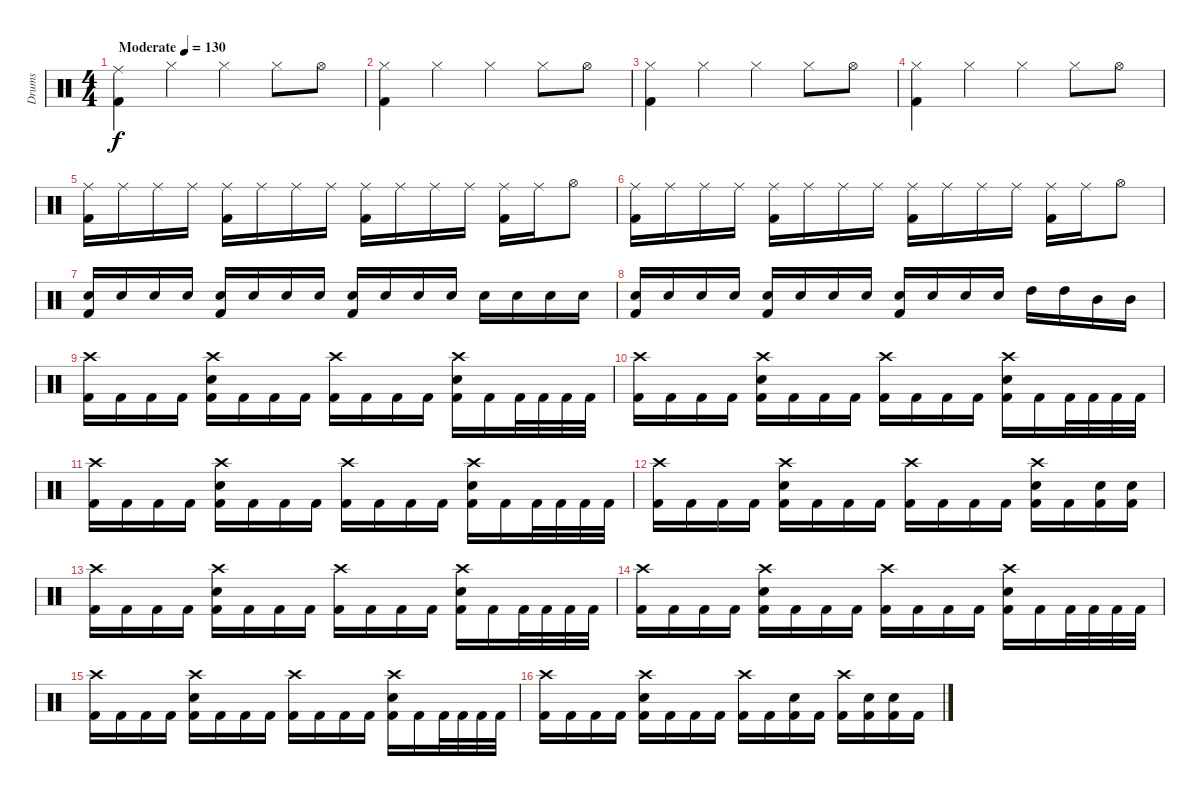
\track ("Drums" "Drums") {instrument percussion}
\staff {score}
\articulation defaults
\ts (4 4)
\tempo (130 "Moderate")
\clef neutral
\ks c
("Ride (middle)" "Kick (hit) 2").4{dy f} "Hi-Hat (closed)".4 "Hi-Hat (closed)".4 "Hi-Hat (closed)".8 "Hi-Hat (open)".8 |
("Hi-Hat (closed)" "Kick (hit) 2").4 "Hi-Hat (closed)".4 "Hi-Hat (closed)".4 "Hi-Hat (closed)".8 "Hi-Hat (open)".8 |
("Hi-Hat (closed)" "Kick (hit) 2").4 "Hi-Hat (closed)".4 "Hi-Hat (closed)".4 "Hi-Hat (closed)".8 "Hi-Hat (open)".8 |
("Hi-Hat (closed)" "Kick (hit) 2").4 "Hi-Hat (closed)".4 "Hi-Hat (closed)".4 "Hi-Hat (closed)".8 "Hi-Hat (open)".8 |
("Ride (middle)" "Kick (hit) 2").16 "Ride (middle)".16 "Ride (middle)".16 "Ride (middle)".16 ("Ride (middle)" "Kick (hit) 2").16 "Ride (middle)".16 "Ride (middle)".16 "Ride (middle)".16 ("Ride (middle)" "Kick (hit) 2").16 "Ride (middle)".16 "Ride (middle)".16 "Ride (middle)".16 ("Ride (middle)" "Kick (hit) 2").16 "Ride (middle)".16 "Hi-Hat (open)".8 |
("Ride (middle)" "Kick (hit) 2").16 "Ride (middle)".16 "Ride (middle)".16 "Ride (middle)".16 ("Ride (middle)" "Kick (hit) 2").16 "Ride (middle)".16 "Ride (middle)".16 "Ride (middle)".16 ("Ride (middle)" "Kick (hit) 2").16 "Ride (middle)".16 "Ride (middle)".16 "Ride (middle)".16 ("Ride (middle)" "Kick (hit) 2").16 "Ride (middle)".16 "Hi-Hat (open)".8 |
("Snare (hit) 2" "Kick (hit) 2").16 "Snare (hit) 2".16 "Snare (hit) 2".16 "Snare (hit) 2".16 ("Snare (hit) 2" "Kick (hit) 2").16 "Snare (hit) 2".16 "Snare (hit) 2".16 "Snare (hit) 2".16 ("Snare (hit) 2" "Kick (hit) 2").16 "Snare (hit) 2".16 "Snare (hit) 2".16 "Snare (hit) 2".16 "Snare (hit) 2".16 "Snare (hit) 2".16 "Snare (hit) 2".16 "Snare (hit) 2".16 |
("Snare (hit) 2" "Kick (hit) 2").16 "Snare (hit) 2".16 "Snare (hit) 2".16 "Snare (hit) 2".16 ("Snare (hit) 2" "Kick (hit) 2").16 "Snare (hit) 2".16 "Snare (hit) 2".16 "Snare (hit) 2".16 ("Snare (hit) 2" "Kick (hit) 2").16 "Snare (hit) 2".16 "Snare (hit) 2".16 "Snare (hit) 2".16 "High Tom (hit)".16 "High Tom (hit)".16 "Mid Tom (hit)".16 "Mid Tom (hit)".16 |
("Crash high (hit)" "Kick (hit) 2").16 "Kick (hit) 2".16 "Kick (hit) 2".16 "Kick (hit) 2".16 ("Crash high (hit)" "Snare (hit) 2" "Kick (hit) 2").16 "Kick (hit) 2".16 "Kick (hit) 2".16 "Kick (hit) 2".16 ("Crash high (hit)" "Kick (hit) 2").16 "Kick (hit) 2".16 "Kick (hit) 2".16 "Kick (hit) 2".16 ("Crash high (hit)" "Snare (hit) 2" "Kick (hit) 2").16 "Kick (hit) 2".16 "Kick (hit) 2".32 "Kick (hit) 2".32 "Kick (hit) 2".32 "Kick (hit) 2".32 |
("Crash high (hit)" "Kick (hit) 2").16 "Kick (hit) 2".16 "Kick (hit) 2".16 "Kick (hit) 2".16 ("Crash high (hit)" "Snare (hit) 2" "Kick (hit) 2").16 "Kick (hit) 2".16 "Kick (hit) 2".16 "Kick (hit) 2".16 ("Crash high (hit)" "Kick (hit) 2").16 "Kick (hit) 2".16 "Kick (hit) 2".16 "Kick (hit) 2".16 ("Crash high (hit)" "Snare (hit) 2" "Kick (hit) 2").16 "Kick (hit) 2".16 "Kick (hit) 2".32 "Kick (hit) 2".32 "Kick (hit) 2".32 "Kick (hit) 2".32 |
("Crash high (hit)" "Kick (hit) 2").16 "Kick (hit) 2".16 "Kick (hit) 2".16 "Kick (hit) 2".16 ("Crash high (hit)" "Snare (hit) 2" "Kick (hit) 2").16 "Kick (hit) 2".16 "Kick (hit) 2".16 "Kick (hit) 2".16 ("Crash high (hit)" "Kick (hit) 2").16 "Kick (hit) 2".16 "Kick (hit) 2".16 "Kick (hit) 2".16 ("Crash high (hit)" "Snare (hit) 2" "Kick (hit) 2").16 "Kick (hit) 2".16 "Kick (hit) 2".32 "Kick (hit) 2".32 "Kick (hit) 2".32 "Kick (hit) 2".32 |
("Crash high (hit)" "Kick (hit) 2").16 "Kick (hit) 2".16 "Kick (hit) 2".16 "Kick (hit) 2".16 ("Crash high (hit)" "Snare (hit) 2" "Kick (hit) 2").16 "Kick (hit) 2".16 "Kick (hit) 2".16 "Kick (hit) 2".16 ("Crash high (hit)" "Kick (hit) 2").16 "Kick (hit) 2".16 "Kick (hit) 2".16 "Kick (hit) 2".16 ("Crash high (hit)" "Snare (hit) 2" "Kick (hit) 2").16 "Kick (hit) 2".16 ("Snare (hit) 2" "Kick (hit) 2").16 ("Snare (hit) 2" "Kick (hit) 2").16 |
("Crash high (hit)" "Kick (hit) 2").16 "Kick (hit) 2".16 "Kick (hit) 2".16 "Kick (hit) 2".16 ("Crash high (hit)" "Snare (hit) 2" "Kick (hit) 2").16 "Kick (hit) 2".16 "Kick (hit) 2".16 "Kick (hit) 2".16 ("Crash high (hit)" "Kick (hit) 2").16 "Kick (hit) 2".16 "Kick (hit) 2".16 "Kick (hit) 2".16 ("Crash high (hit)" "Snare (hit) 2" "Kick (hit) 2").16 "Kick (hit) 2".16 "Kick (hit) 2".32 "Kick (hit) 2".32 "Kick (hit) 2".32 "Kick (hit) 2".32 |
("Crash high (hit)" "Kick (hit) 2").16 "Kick (hit) 2".16 "Kick (hit) 2".16 "Kick (hit) 2".16 ("Crash high (hit)" "Snare (hit) 2" "Kick (hit) 2").16 "Kick (hit) 2".16 "Kick (hit) 2".16 "Kick (hit) 2".16 ("Crash high (hit)" "Kick (hit) 2").16 "Kick (hit) 2".16 "Kick (hit) 2".16 "Kick (hit) 2".16 ("Crash high (hit)" "Snare (hit) 2" "Kick (hit) 2").16 "Kick (hit) 2".16 "Kick (hit) 2".32 "Kick (hit) 2".32 "Kick (hit) 2".32 "Kick (hit) 2".32 |
("Crash high (hit)" "Kick (hit) 2").16 "Kick (hit) 2".16 "Kick (hit) 2".16 "Kick (hit) 2".16 ("Crash high (hit)" "Snare (hit) 2" "Kick (hit) 2").16 "Kick (hit) 2".16 "Kick (hit) 2".16 "Kick (hit) 2".16 ("Crash high (hit)" "Kick (hit) 2").16 "Kick (hit) 2".16 "Kick (hit) 2".16 "Kick (hit) 2".16 ("Crash high (hit)" "Snare (hit) 2" "Kick (hit) 2").16 "Kick (hit) 2".16 "Kick (hit) 2".32 "Kick (hit) 2".32 "Kick (hit) 2".32 "Kick (hit) 2".32 |
("Crash high (hit)" "Kick (hit) 2").16 "Kick (hit) 2".16 "Kick (hit) 2".16 "Kick (hit) 2".16 ("Crash high (hit)" "Snare (hit) 2" "Kick (hit) 2").16 "Kick (hit) 2".16 "Kick (hit) 2".16 "Kick (hit) 2".16 ("Crash high (hit)" "Kick (hit) 2").16 "Kick (hit) 2".16 ("Snare (hit) 2" "Kick (hit) 2").16 "Kick (hit) 2".16 ("Crash high (hit)" "Kick (hit) 2").16 ("Snare (hit) 2" "Kick (hit) 2").16 ("Snare (hit) 2" "Kick (hit) 2").16 "Kick (hit) 2".16
